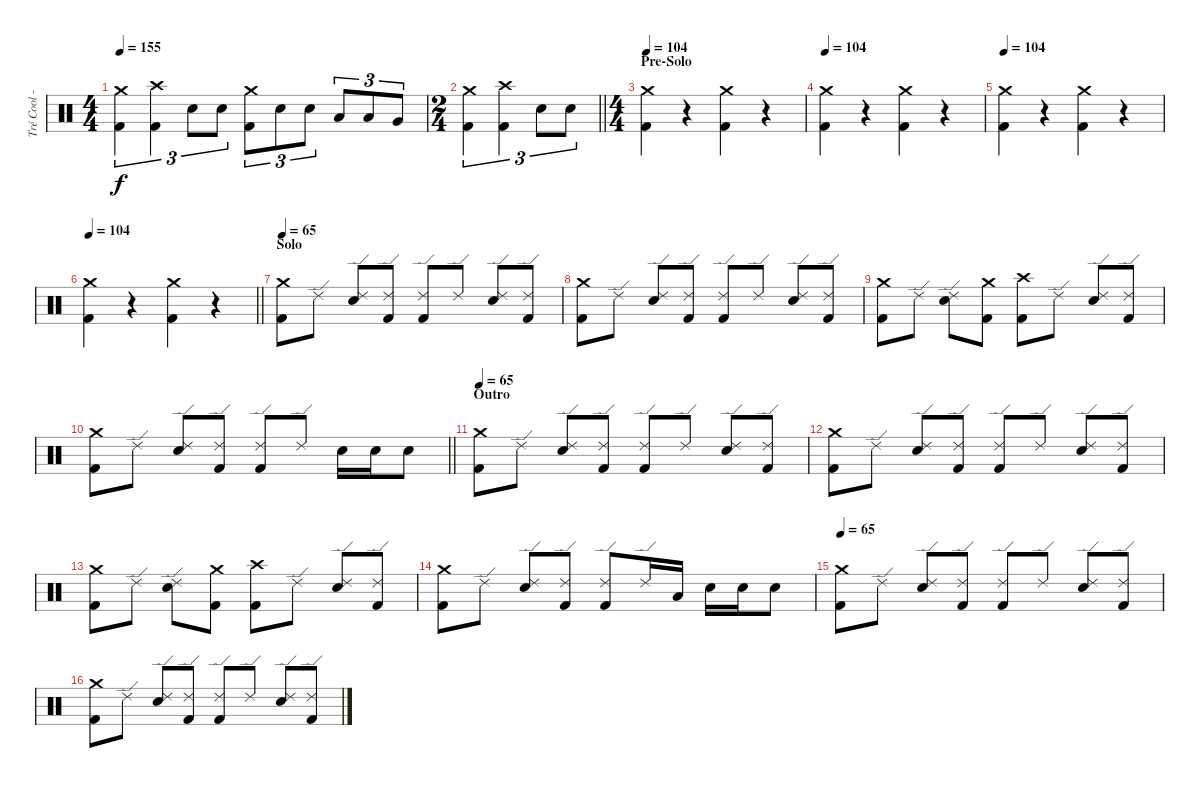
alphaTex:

\track ("Tré Cool - Drums" "Tré Cool -") {instrument percussion}
\staff {score}
\articulation defaults
\ts (4 4)
\tempo 155
\clef neutral
\ks c
("Crash medium (hit)" "Kick (hit) 2").4{tu (3 2) dy f} ("Crash high (hit)" "Kick (hit) 2").4{tu (3 2)} "Electric Snare (hit)".8{tu (3 2)} "Electric Snare (hit)".8{tu (3 2)} ("Crash medium (hit)" "Kick (hit) 2").8{tu (3 2)} "Electric Snare (hit)".8{tu (3 2)} "Electric Snare (hit)".8{tu (3 2)} "Low Tom (hit)".8{tu (3 2)} "Low Tom (hit)".8{tu (3 2)} "Very Low Tom (hit)".8{tu (3 2)} |
\ts (2 4)
\barLineRight lightlight
("Crash medium (hit)" "Kick (hit) 2").4{tu (3 2)} ("Crash high (hit)" "Kick (hit) 2").4{tu (3 2)} "Electric Snare (hit)".8{tu (3 2)} "Electric Snare (hit)".8{tu (3 2)} |
\ts (4 4)
\section ("" "Pre-Solo")
\tempo 104
("Crash medium (hit)" "Kick (hit) 2").4 r.4 ("Crash medium (hit)" "Kick (hit) 2").4 r.4 |
\tempo 104
("Crash medium (hit)" "Kick (hit) 2").4 r.4 ("Crash medium (hit)" "Kick (hit) 2").4 r.4 |
\tempo 104
("Crash medium (hit)" "Kick (hit) 2").4 r.4 ("Crash medium (hit)" "Kick (hit) 2").4 r.4 |
\tempo 104
\barLineRight lightlight
("Crash medium (hit)" "Kick (hit) 2").4 r.4 ("Crash medium (hit)" "Kick (hit) 2").4 r.4 |
\section ("" "Solo")
\tempo 65
("Crash medium (hit)" "Kick (hit) 2").8 "Ride (edge) 2".8 ("Ride (edge) 2" "Electric Snare (hit)").8 ("Ride (edge) 2" "Kick (hit) 2").8 ("Ride (edge) 2" "Kick (hit) 2").8 "Ride (edge) 2".8 ("Ride (edge) 2" "Electric Snare (hit)").8 ("Ride (edge) 2" "Kick (hit) 2").8 |
("Crash medium (hit)" "Kick (hit) 2").8 "Ride (edge) 2".8 ("Ride (edge) 2" "Electric Snare (hit)").8 ("Ride (edge) 2" "Kick (hit) 2").8 ("Ride (edge) 2" "Kick (hit) 2").8 "Ride (edge) 2".8 ("Ride (edge) 2" "Electric Snare (hit)").8 ("Ride (edge) 2" "Kick (hit) 2").8 |
("Crash medium (hit)" "Kick (hit) 2").8 "Ride (edge) 2".8 ("Ride (edge) 2" "Electric Snare (hit)").8 ("Crash medium (hit)" "Kick (hit) 2").8 ("Crash high (hit)" "Kick (hit) 2").8 "Ride (edge) 2".8 ("Ride (edge) 2" "Electric Snare (hit)").8 ("Ride (edge) 2" "Kick (hit) 2").8 |
\barLineRight lightlight
("Crash medium (hit)" "Kick (hit) 2").8 "Ride (edge) 2".8 ("Ride (edge) 2" "Electric Snare (hit)").8 ("Ride (edge) 2" "Kick (hit) 2").8 ("Ride (edge) 2" "Kick (hit) 2").8 "Ride (edge) 2".8 "Electric Snare (hit)".16 "Electric Snare (hit)".16 "Electric Snare (hit)".8 |
\section ("" "Outro")
\tempo 65
("Crash medium (hit)" "Kick (hit) 2").8 "Ride (edge) 2".8 ("Ride (edge) 2" "Electric Snare (hit)").8 ("Ride (edge) 2" "Kick (hit) 2").8 ("Ride (edge) 2" "Kick (hit) 2").8 "Ride (edge) 2".8 ("Ride (edge) 2" "Electric Snare (hit)").8 ("Ride (edge) 2" "Kick (hit) 2").8 |
("Crash medium (hit)" "Kick (hit) 2").8 "Ride (edge) 2".8 ("Ride (edge) 2" "Electric Snare (hit)").8 ("Ride (edge) 2" "Kick (hit) 2").8 ("Ride (edge) 2" "Kick (hit) 2").8 "Ride (edge) 2".8 ("Ride (edge) 2" "Electric Snare (hit)").8 ("Ride (edge) 2" "Kick (hit) 2").8 |
("Crash medium (hit)" "Kick (hit) 2").8 "Ride (edge) 2".8 ("Ride (edge) 2" "Electric Snare (hit)").8 ("Crash medium (hit)" "Kick (hit) 2").8 ("Crash high (hit)" "Kick (hit) 2").8 "Ride (edge) 2".8 ("Ride (edge) 2" "Electric Snare (hit)").8 ("Ride (edge) 2" "Kick (hit) 2").8 |
("Crash medium (hit)" "Kick (hit) 2").8 "Ride (edge) 2".8 ("Ride (edge) 2" "Electric Snare (hit)").8 ("Ride (edge) 2" "Kick (hit) 2").8 ("Ride (edge) 2" "Kick (hit) 2").8 "Ride (edge) 2".16 "Low Tom (hit)".16 "Electric Snare (hit)".16 "Electric Snare (hit)".16 "Electric Snare (hit)".8 |
\tempo 65
("Crash medium (hit)" "Kick (hit) 2").8 "Ride (edge) 2".8 ("Ride (edge) 2" "Electric Snare (hit)").8 ("Ride (edge) 2" "Kick (hit) 2").8 ("Ride (edge) 2" "Kick (hit) 2").8 "Ride (edge) 2".8 ("Ride (edge) 2" "Electric Snare (hit)").8 ("Ride (edge) 2" "Kick (hit) 2").8 |
("Crash medium (hit)" "Kick (hit) 2").8 "Ride (edge) 2".8 ("Ride (edge) 2" "Electric Snare (hit)").8 ("Ride (edge) 2" "Kick (hit) 2").8 ("Ride (edge) 2" "Kick (hit) 2").8 "Ride (edge) 2".8 ("Ride (edge) 2" "Electric Snare (hit)").8 ("Ride (edge) 2" "Kick (hit) 2").8
